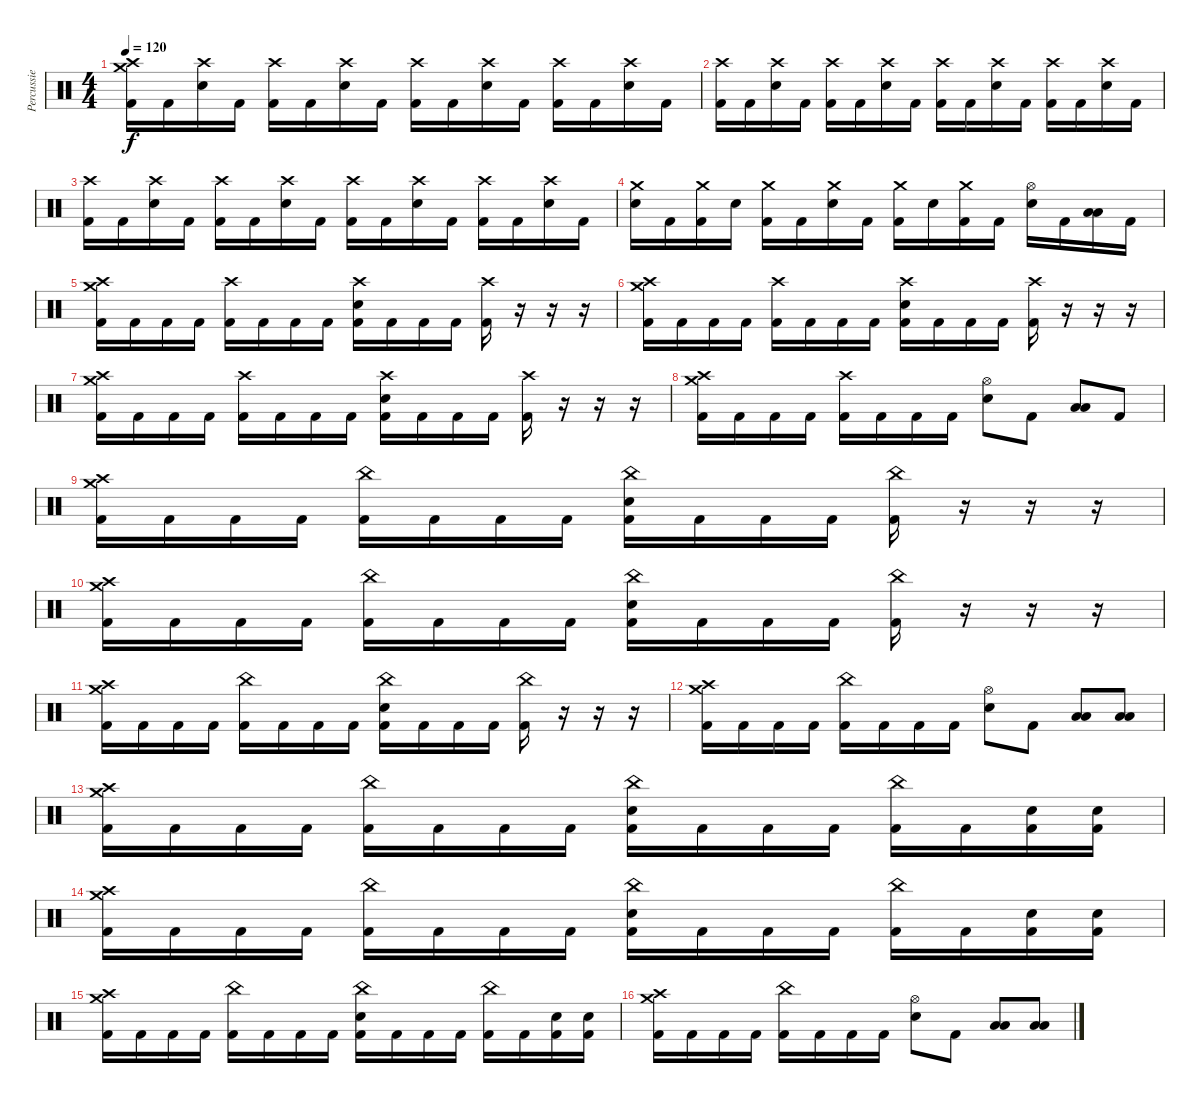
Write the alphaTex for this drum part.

\track ("Percussie" "Percussie") {instrument percussion}
\staff {score}
\articulation defaults
\ts (4 4)
\tempo 120
\clef neutral
\ks c
("Crash medium (hit)" "Crash high (hit)" "Kick (hit) 2").16{dy f} "Kick (hit) 2".16 ("Crash high (hit)" "Electric Snare (hit)").16 "Kick (hit) 2".16 ("Crash high (hit)" "Kick (hit) 2").16 "Kick (hit) 2".16 ("Crash high (hit)" "Electric Snare (hit)").16 "Kick (hit) 2".16 ("Crash high (hit)" "Kick (hit) 2").16 "Kick (hit) 2".16 ("Crash high (hit)" "Electric Snare (hit)").16 "Kick (hit) 2".16 ("Crash high (hit)" "Kick (hit) 2").16 "Kick (hit) 2".16 ("Crash high (hit)" "Electric Snare (hit)").16 "Kick (hit) 2".16 |
("Crash high (hit)" "Kick (hit) 2").16 "Kick (hit) 2".16 ("Crash high (hit)" "Electric Snare (hit)").16 "Kick (hit) 2".16 ("Crash high (hit)" "Kick (hit) 2").16 "Kick (hit) 2".16 ("Crash high (hit)" "Electric Snare (hit)").16 "Kick (hit) 2".16 ("Crash high (hit)" "Kick (hit) 2").16 "Kick (hit) 2".16 ("Crash high (hit)" "Electric Snare (hit)").16 "Kick (hit) 2".16 ("Crash high (hit)" "Kick (hit) 2").16 "Kick (hit) 2".16 ("Crash high (hit)" "Electric Snare (hit)").16 "Kick (hit) 2".16 |
("Crash high (hit)" "Kick (hit) 2").16 "Kick (hit) 2".16 ("Crash high (hit)" "Electric Snare (hit)").16 "Kick (hit) 2".16 ("Crash high (hit)" "Kick (hit) 2").16 "Kick (hit) 2".16 ("Crash high (hit)" "Electric Snare (hit)").16 "Kick (hit) 2".16 ("Crash high (hit)" "Kick (hit) 2").16 "Kick (hit) 2".16 ("Crash high (hit)" "Electric Snare (hit)").16 "Kick (hit) 2".16 ("Crash high (hit)" "Kick (hit) 2").16 "Kick (hit) 2".16 ("Crash high (hit)" "Electric Snare (hit)").16 "Kick (hit) 2".16 |
("Crash medium (hit)" "Electric Snare (hit)").16 "Kick (hit) 2".16 ("Crash medium (hit)" "Kick (hit) 2").16 "Electric Snare (hit)".16 ("Crash medium (hit)" "Kick (hit) 2").16 "Kick (hit) 2".16 ("Crash medium (hit)" "Electric Snare (hit)").16 "Kick (hit) 2".16 ("Crash medium (hit)" "Kick (hit) 2").16 "Electric Snare (hit)".16 ("Crash medium (hit)" "Kick (hit) 2").16 "Kick (hit) 2".16 ("Hi-Hat (open)" "Electric Snare (hit)").16 "Kick (hit) 2".16 ("Low Tom (hit)" "Low Floor Tom (hit)").16 "Kick (hit) 2".16 |
("Crash medium (hit)" "Crash high (hit)" "Kick (hit) 2").16 "Kick (hit) 2".16 "Kick (hit) 2".16 "Kick (hit) 2".16 ("Crash high (hit)" "Kick (hit) 2").16 "Kick (hit) 2".16 "Kick (hit) 2".16 "Kick (hit) 2".16 ("Crash high (hit)" "Electric Snare (hit)" "Kick (hit) 2").16 "Kick (hit) 2".16 "Kick (hit) 2".16 "Kick (hit) 2".16 ("Crash high (hit)" "Kick (hit) 2").16 r.16 r.16 r.16 |
("Crash medium (hit)" "Crash high (hit)" "Kick (hit) 2").16 "Kick (hit) 2".16 "Kick (hit) 2".16 "Kick (hit) 2".16 ("Crash high (hit)" "Kick (hit) 2").16 "Kick (hit) 2".16 "Kick (hit) 2".16 "Kick (hit) 2".16 ("Crash high (hit)" "Electric Snare (hit)" "Kick (hit) 2").16 "Kick (hit) 2".16 "Kick (hit) 2".16 "Kick (hit) 2".16 ("Crash high (hit)" "Kick (hit) 2").16 r.16 r.16 r.16 |
("Crash medium (hit)" "Crash high (hit)" "Kick (hit) 2").16 "Kick (hit) 2".16 "Kick (hit) 2".16 "Kick (hit) 2".16 ("Crash high (hit)" "Kick (hit) 2").16 "Kick (hit) 2".16 "Kick (hit) 2".16 "Kick (hit) 2".16 ("Crash high (hit)" "Electric Snare (hit)" "Kick (hit) 2").16 "Kick (hit) 2".16 "Kick (hit) 2".16 "Kick (hit) 2".16 ("Crash high (hit)" "Kick (hit) 2").16 r.16 r.16 r.16 |
("Crash medium (hit)" "Crash high (hit)" "Kick (hit) 2").16 "Kick (hit) 2".16 "Kick (hit) 2".16 "Kick (hit) 2".16 ("Crash high (hit)" "Kick (hit) 2").16 "Kick (hit) 2".16 "Kick (hit) 2".16 "Kick (hit) 2".16 ("Hi-Hat (open)" "Electric Snare (hit)").8 "Kick (hit) 2".8 ("Low Tom (hit)" "Low Floor Tom (hit)").8 "Kick (hit) 2".8 |
("Crash medium (hit)" "Crash high (hit)" "Kick (hit) 2").16 "Kick (hit) 2".16 "Kick (hit) 2".16 "Kick (hit) 2".16 ("China (hit)" "Kick (hit) 2").16 "Kick (hit) 2".16 "Kick (hit) 2".16 "Kick (hit) 2".16 ("China (hit)" "Electric Snare (hit)" "Kick (hit) 2").16 "Kick (hit) 2".16 "Kick (hit) 2".16 "Kick (hit) 2".16 ("China (hit)" "Kick (hit) 2").16 r.16 r.16 r.16 |
("Crash medium (hit)" "Crash high (hit)" "Kick (hit) 2").16 "Kick (hit) 2".16 "Kick (hit) 2".16 "Kick (hit) 2".16 ("China (hit)" "Kick (hit) 2").16 "Kick (hit) 2".16 "Kick (hit) 2".16 "Kick (hit) 2".16 ("China (hit)" "Electric Snare (hit)" "Kick (hit) 2").16 "Kick (hit) 2".16 "Kick (hit) 2".16 "Kick (hit) 2".16 ("China (hit)" "Kick (hit) 2").16 r.16 r.16 r.16 |
("Crash medium (hit)" "Crash high (hit)" "Kick (hit) 2").16 "Kick (hit) 2".16 "Kick (hit) 2".16 "Kick (hit) 2".16 ("China (hit)" "Kick (hit) 2").16 "Kick (hit) 2".16 "Kick (hit) 2".16 "Kick (hit) 2".16 ("China (hit)" "Electric Snare (hit)" "Kick (hit) 2").16 "Kick (hit) 2".16 "Kick (hit) 2".16 "Kick (hit) 2".16 ("China (hit)" "Kick (hit) 2").16 r.16 r.16 r.16 |
("Crash medium (hit)" "Crash high (hit)" "Kick (hit) 2").16 "Kick (hit) 2".16 "Kick (hit) 2".16 "Kick (hit) 2".16 ("China (hit)" "Kick (hit) 2").16 "Kick (hit) 2".16 "Kick (hit) 2".16 "Kick (hit) 2".16 ("Hi-Hat (open)" "Electric Snare (hit)").8 "Kick (hit) 2".8 ("Low Tom (hit)" "Low Floor Tom (hit)").8 ("Low Tom (hit)" "Low Floor Tom (hit)").8 |
("Crash medium (hit)" "Crash high (hit)" "Kick (hit) 2").16 "Kick (hit) 2".16 "Kick (hit) 2".16 "Kick (hit) 2".16 ("China (hit)" "Kick (hit) 2").16 "Kick (hit) 2".16 "Kick (hit) 2".16 "Kick (hit) 2".16 ("China (hit)" "Electric Snare (hit)" "Kick (hit) 2").16 "Kick (hit) 2".16 "Kick (hit) 2".16 "Kick (hit) 2".16 ("China (hit)" "Kick (hit) 2").16 "Kick (hit) 2".16 ("Electric Snare (hit)" "Kick (hit) 2").16 ("Electric Snare (hit)" "Kick (hit) 2").16 |
("Crash medium (hit)" "Crash high (hit)" "Kick (hit) 2").16 "Kick (hit) 2".16 "Kick (hit) 2".16 "Kick (hit) 2".16 ("China (hit)" "Kick (hit) 2").16 "Kick (hit) 2".16 "Kick (hit) 2".16 "Kick (hit) 2".16 ("China (hit)" "Electric Snare (hit)" "Kick (hit) 2").16 "Kick (hit) 2".16 "Kick (hit) 2".16 "Kick (hit) 2".16 ("China (hit)" "Kick (hit) 2").16 "Kick (hit) 2".16 ("Electric Snare (hit)" "Kick (hit) 2").16 ("Electric Snare (hit)" "Kick (hit) 2").16 |
("Crash medium (hit)" "Crash high (hit)" "Kick (hit) 2").16 "Kick (hit) 2".16 "Kick (hit) 2".16 "Kick (hit) 2".16 ("China (hit)" "Kick (hit) 2").16 "Kick (hit) 2".16 "Kick (hit) 2".16 "Kick (hit) 2".16 ("China (hit)" "Electric Snare (hit)" "Kick (hit) 2").16 "Kick (hit) 2".16 "Kick (hit) 2".16 "Kick (hit) 2".16 ("China (hit)" "Kick (hit) 2").16 "Kick (hit) 2".16 ("Electric Snare (hit)" "Kick (hit) 2").16 ("Electric Snare (hit)" "Kick (hit) 2").16 |
("Crash medium (hit)" "Crash high (hit)" "Kick (hit) 2").16 "Kick (hit) 2".16 "Kick (hit) 2".16 "Kick (hit) 2".16 ("China (hit)" "Kick (hit) 2").16 "Kick (hit) 2".16 "Kick (hit) 2".16 "Kick (hit) 2".16 ("Hi-Hat (open)" "Electric Snare (hit)").8 "Kick (hit) 2".8 ("Low Tom (hit)" "Low Floor Tom (hit)").8 ("Low Tom (hit)" "Low Floor Tom (hit)").8
